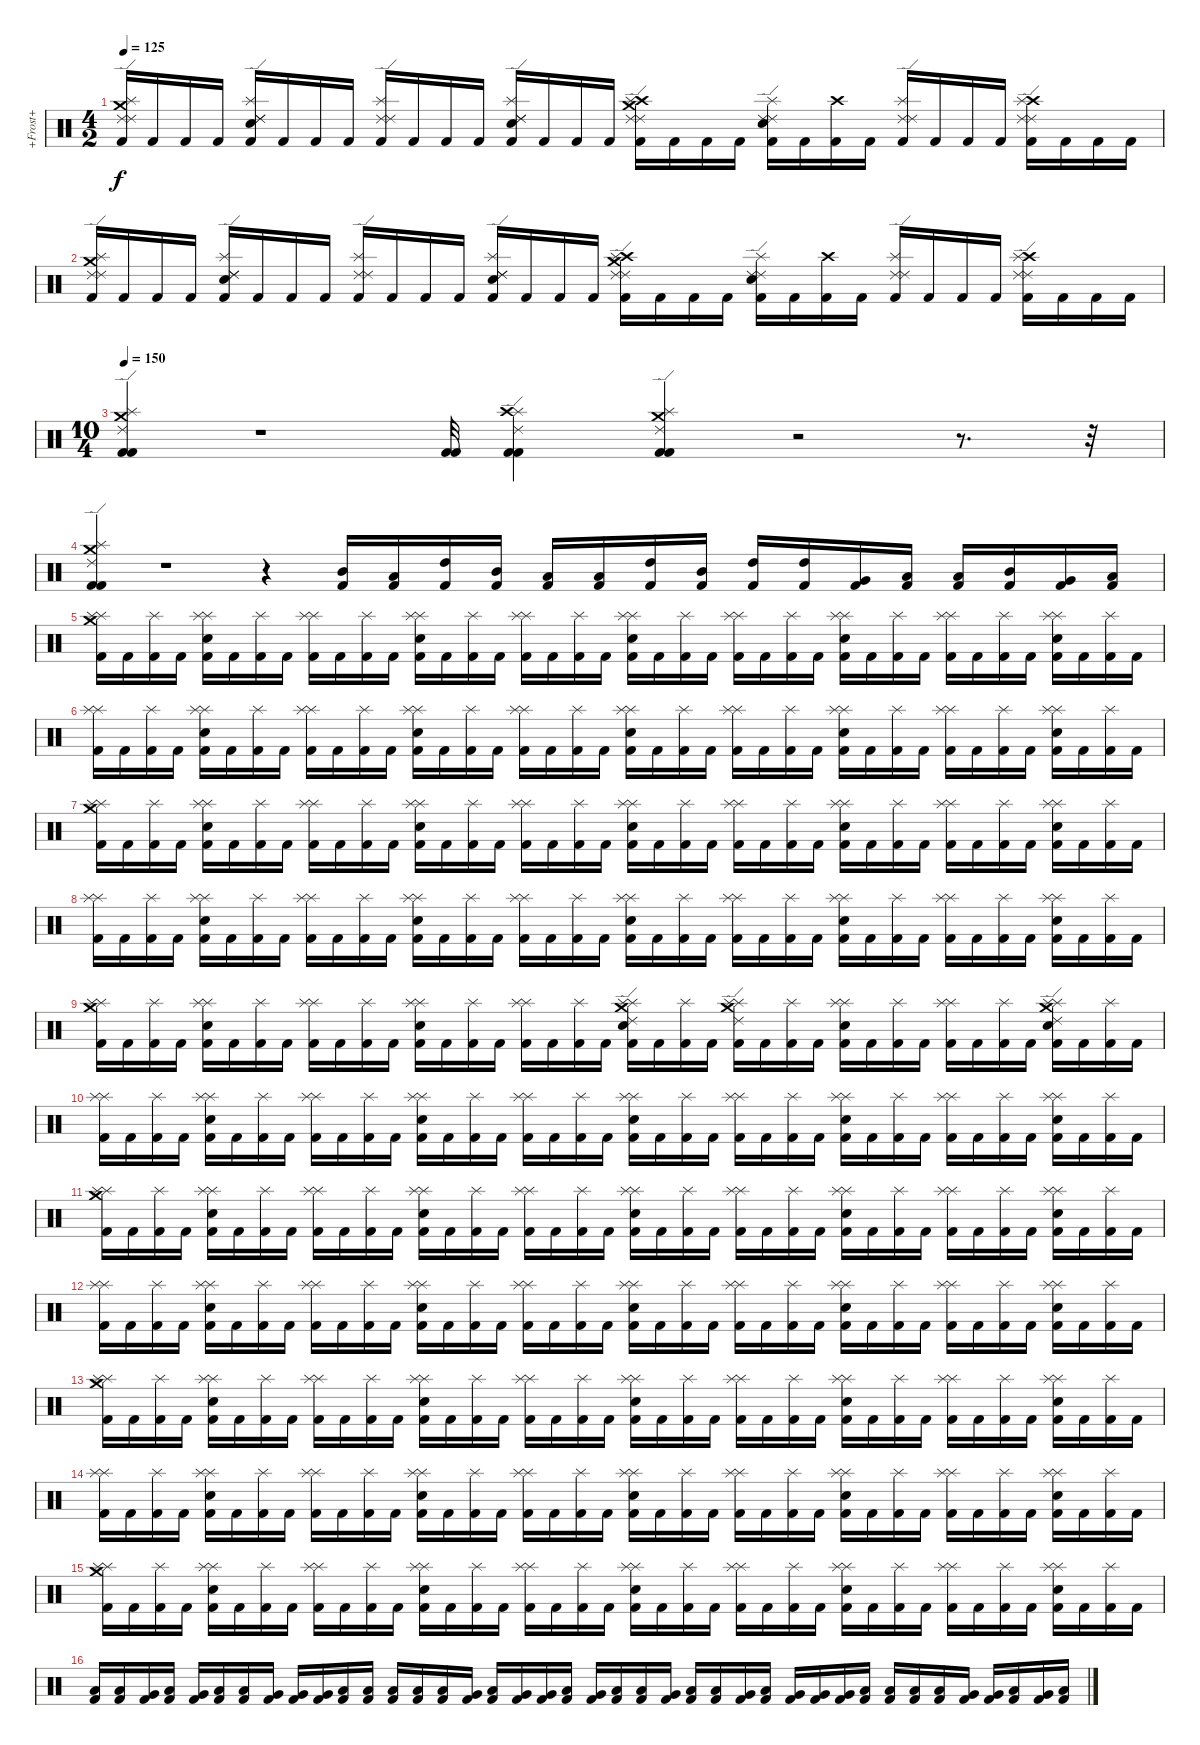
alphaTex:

\track ("+Frost+" "+Frost+") {instrument percussion}
\staff {score}
\articulation defaults
\ts (4 2)
\tempo 125
\clef neutral
\ks c
("Kick (hit) 2" "Crash medium (hit)" "Splash (hit)" "Ride (edge) 2" "Ride (edge) 2").16{dy f} "Kick (hit) 2".16 "Kick (hit) 2".16 "Kick (hit) 2".16 ("Kick (hit) 2" "Electric Snare (hit)" "Splash (hit)" "Ride (edge) 2" "Ride (edge) 2").16 "Kick (hit) 2".16 "Kick (hit) 2".16 "Kick (hit) 2".16 ("Kick (hit) 2" "Splash (hit)" "Ride (edge) 2" "Ride (edge) 2").16 "Kick (hit) 2".16 "Kick (hit) 2".16 "Kick (hit) 2".16 ("Kick (hit) 2" "Electric Snare (hit)" "Splash (hit)" "Ride (edge) 2" "Ride (edge) 2").16 "Kick (hit) 2".16 "Kick (hit) 2".16 "Kick (hit) 2".16 ("Kick (hit) 2" "Crash high (hit)" "Crash medium (hit)" "Splash (hit)" "Ride (edge) 2" "Ride (edge) 2").16 "Kick (hit) 2".16 "Kick (hit) 2".16 "Kick (hit) 2".16 ("Kick (hit) 2" "Electric Snare (hit)" "Splash (hit)" "Ride (edge) 2" "Ride (edge) 2").16 "Kick (hit) 2".16 ("Kick (hit) 2" "Crash high (hit)").16 "Kick (hit) 2".16 ("Kick (hit) 2" "Splash (hit)" "Ride (edge) 2" "Ride (edge) 2").16 "Kick (hit) 2".16 "Kick (hit) 2".16 "Kick (hit) 2".16 ("Kick (hit) 2" "Crash high (hit)" "Splash (hit)" "Ride (edge) 2" "Ride (edge) 2").16 "Kick (hit) 2".16 "Kick (hit) 2".16 "Kick (hit) 2".16 |
("Kick (hit) 2" "Crash medium (hit)" "Splash (hit)" "Ride (edge) 2" "Ride (edge) 2").16 "Kick (hit) 2".16 "Kick (hit) 2".16 "Kick (hit) 2".16 ("Kick (hit) 2" "Electric Snare (hit)" "Splash (hit)" "Ride (edge) 2" "Ride (edge) 2").16 "Kick (hit) 2".16 "Kick (hit) 2".16 "Kick (hit) 2".16 ("Kick (hit) 2" "Splash (hit)" "Ride (edge) 2" "Ride (edge) 2").16 "Kick (hit) 2".16 "Kick (hit) 2".16 "Kick (hit) 2".16 ("Kick (hit) 2" "Electric Snare (hit)" "Splash (hit)" "Ride (edge) 2" "Ride (edge) 2").16 "Kick (hit) 2".16 "Kick (hit) 2".16 "Kick (hit) 2".16 ("Kick (hit) 2" "Crash high (hit)" "Crash medium (hit)" "Splash (hit)" "Ride (edge) 2" "Ride (edge) 2").16 "Kick (hit) 2".16 "Kick (hit) 2".16 "Kick (hit) 2".16 ("Kick (hit) 2" "Electric Snare (hit)" "Splash (hit)" "Ride (edge) 2" "Ride (edge) 2").16 "Kick (hit) 2".16 ("Kick (hit) 2" "Crash high (hit)").16 "Kick (hit) 2".16 ("Kick (hit) 2" "Splash (hit)" "Ride (edge) 2" "Ride (edge) 2").16 "Kick (hit) 2".16 "Kick (hit) 2".16 "Kick (hit) 2".16 ("Kick (hit) 2" "Crash high (hit)" "Splash (hit)" "Ride (edge) 2" "Ride (edge) 2").16 "Kick (hit) 2".16 "Kick (hit) 2".16 "Kick (hit) 2".16 |
\ts (10 4)
\tempo 150
("Kick (hit) 2" "Kick (hit) 2" "Ride (edge) 2" "Crash medium (hit)" "Splash (hit)").4 r.1 ("Kick (hit) 2" "Kick (hit) 2").32 ("Kick (hit) 2" "Kick (hit) 2" "Splash (hit)" "Crash high (hit)" "Ride (edge) 2").4 ("Kick (hit) 2" "Kick (hit) 2" "Splash (hit)" "Crash medium (hit)" "Ride (edge) 2").4 r.2 r.8{d} r.32 |
("Kick (hit) 2" "Kick (hit) 2" "Ride (edge) 2" "Crash medium (hit)" "Splash (hit)").4 r.1 r.4 ("Kick (hit) 2" "Mid Tom (hit)").16 ("Kick (hit) 2" "Low Tom (hit)").16 ("Kick (hit) 2" "High Tom (hit)").16 ("Kick (hit) 2" "Mid Tom (hit)").16 ("Kick (hit) 2" "Low Tom (hit)").16 ("Kick (hit) 2" "Low Tom (hit)").16 ("Kick (hit) 2" "High Tom (hit)").16 ("Kick (hit) 2" "Mid Tom (hit)").16 ("Kick (hit) 2" "High Tom (hit)").16 ("Kick (hit) 2" "High Tom (hit)").16 ("Kick (hit) 2" "Very Low Tom (hit)").16 ("Kick (hit) 2" "Low Tom (hit)").16 ("Kick (hit) 2" "Low Floor Tom (hit)").16 ("Kick (hit) 2" "Mid Tom (hit)").16 ("Kick (hit) 2" "Very Low Tom (hit)").16 ("Kick (hit) 2" "Low Tom (hit)").16 |
("Kick (hit) 2" "Splash (hit)" "Splash (hit)" "Crash medium (hit)").16 "Kick (hit) 2".16 ("Kick (hit) 2" "Splash (hit)").16 "Kick (hit) 2".16 ("Kick (hit) 2" "Splash (hit)" "Splash (hit)" "Electric Snare (hit)").16 "Kick (hit) 2".16 ("Kick (hit) 2" "Splash (hit)").16 "Kick (hit) 2".16 ("Kick (hit) 2" "Splash (hit)" "Splash (hit)").16 "Kick (hit) 2".16 ("Kick (hit) 2" "Splash (hit)").16 "Kick (hit) 2".16 ("Kick (hit) 2" "Splash (hit)" "Splash (hit)" "Electric Snare (hit)").16 "Kick (hit) 2".16 ("Kick (hit) 2" "Splash (hit)").16 "Kick (hit) 2".16 ("Kick (hit) 2" "Splash (hit)" "Splash (hit)").16 "Kick (hit) 2".16 ("Kick (hit) 2" "Splash (hit)").16 "Kick (hit) 2".16 ("Kick (hit) 2" "Splash (hit)" "Splash (hit)" "Electric Snare (hit)").16 "Kick (hit) 2".16 ("Kick (hit) 2" "Splash (hit)").16 "Kick (hit) 2".16 ("Kick (hit) 2" "Splash (hit)" "Splash (hit)").16 "Kick (hit) 2".16 ("Kick (hit) 2" "Splash (hit)").16 "Kick (hit) 2".16 ("Kick (hit) 2" "Splash (hit)" "Splash (hit)" "Electric Snare (hit)").16 "Kick (hit) 2".16 ("Kick (hit) 2" "Splash (hit)").16 "Kick (hit) 2".16 ("Kick (hit) 2" "Splash (hit)" "Splash (hit)").16 "Kick (hit) 2".16 ("Kick (hit) 2" "Splash (hit)").16 "Kick (hit) 2".16 ("Kick (hit) 2" "Splash (hit)" "Splash (hit)" "Electric Snare (hit)").16 "Kick (hit) 2".16 ("Kick (hit) 2" "Splash (hit)").16 "Kick (hit) 2".16 |
("Kick (hit) 2" "Splash (hit)" "Splash (hit)").16 "Kick (hit) 2".16 ("Kick (hit) 2" "Splash (hit)").16 "Kick (hit) 2".16 ("Kick (hit) 2" "Splash (hit)" "Splash (hit)" "Electric Snare (hit)").16 "Kick (hit) 2".16 ("Kick (hit) 2" "Splash (hit)").16 "Kick (hit) 2".16 ("Kick (hit) 2" "Splash (hit)" "Splash (hit)").16 "Kick (hit) 2".16 ("Kick (hit) 2" "Splash (hit)").16 "Kick (hit) 2".16 ("Kick (hit) 2" "Splash (hit)" "Splash (hit)" "Electric Snare (hit)").16 "Kick (hit) 2".16 ("Kick (hit) 2" "Splash (hit)").16 "Kick (hit) 2".16 ("Kick (hit) 2" "Splash (hit)" "Splash (hit)").16 "Kick (hit) 2".16 ("Kick (hit) 2" "Splash (hit)").16 "Kick (hit) 2".16 ("Kick (hit) 2" "Splash (hit)" "Splash (hit)" "Electric Snare (hit)").16 "Kick (hit) 2".16 ("Kick (hit) 2" "Splash (hit)").16 "Kick (hit) 2".16 ("Kick (hit) 2" "Splash (hit)" "Splash (hit)").16 "Kick (hit) 2".16 ("Kick (hit) 2" "Splash (hit)").16 "Kick (hit) 2".16 ("Kick (hit) 2" "Splash (hit)" "Splash (hit)" "Electric Snare (hit)").16 "Kick (hit) 2".16 ("Kick (hit) 2" "Splash (hit)").16 "Kick (hit) 2".16 ("Kick (hit) 2" "Splash (hit)" "Splash (hit)").16 "Kick (hit) 2".16 ("Kick (hit) 2" "Splash (hit)").16 "Kick (hit) 2".16 ("Kick (hit) 2" "Splash (hit)" "Splash (hit)" "Electric Snare (hit)").16 "Kick (hit) 2".16 ("Kick (hit) 2" "Splash (hit)").16 "Kick (hit) 2".16 |
("Kick (hit) 2" "Splash (hit)" "Splash (hit)" "Crash medium (hit)").16 "Kick (hit) 2".16 ("Kick (hit) 2" "Splash (hit)").16 "Kick (hit) 2".16 ("Kick (hit) 2" "Splash (hit)" "Splash (hit)" "Electric Snare (hit)").16 "Kick (hit) 2".16 ("Kick (hit) 2" "Splash (hit)").16 "Kick (hit) 2".16 ("Kick (hit) 2" "Splash (hit)" "Splash (hit)").16 "Kick (hit) 2".16 ("Kick (hit) 2" "Splash (hit)").16 "Kick (hit) 2".16 ("Kick (hit) 2" "Splash (hit)" "Splash (hit)" "Electric Snare (hit)").16 "Kick (hit) 2".16 ("Kick (hit) 2" "Splash (hit)").16 "Kick (hit) 2".16 ("Kick (hit) 2" "Splash (hit)" "Splash (hit)").16 "Kick (hit) 2".16 ("Kick (hit) 2" "Splash (hit)").16 "Kick (hit) 2".16 ("Kick (hit) 2" "Splash (hit)" "Splash (hit)" "Electric Snare (hit)").16 "Kick (hit) 2".16 ("Kick (hit) 2" "Splash (hit)").16 "Kick (hit) 2".16 ("Kick (hit) 2" "Splash (hit)" "Splash (hit)").16 "Kick (hit) 2".16 ("Kick (hit) 2" "Splash (hit)").16 "Kick (hit) 2".16 ("Kick (hit) 2" "Splash (hit)" "Splash (hit)" "Electric Snare (hit)").16 "Kick (hit) 2".16 ("Kick (hit) 2" "Splash (hit)").16 "Kick (hit) 2".16 ("Kick (hit) 2" "Splash (hit)" "Splash (hit)").16 "Kick (hit) 2".16 ("Kick (hit) 2" "Splash (hit)").16 "Kick (hit) 2".16 ("Kick (hit) 2" "Splash (hit)" "Splash (hit)" "Electric Snare (hit)").16 "Kick (hit) 2".16 ("Kick (hit) 2" "Splash (hit)").16 "Kick (hit) 2".16 |
("Kick (hit) 2" "Splash (hit)" "Splash (hit)").16 "Kick (hit) 2".16 ("Kick (hit) 2" "Splash (hit)").16 "Kick (hit) 2".16 ("Kick (hit) 2" "Splash (hit)" "Splash (hit)" "Electric Snare (hit)").16 "Kick (hit) 2".16 ("Kick (hit) 2" "Splash (hit)").16 "Kick (hit) 2".16 ("Kick (hit) 2" "Splash (hit)" "Splash (hit)").16 "Kick (hit) 2".16 ("Kick (hit) 2" "Splash (hit)").16 "Kick (hit) 2".16 ("Kick (hit) 2" "Splash (hit)" "Splash (hit)" "Electric Snare (hit)").16 "Kick (hit) 2".16 ("Kick (hit) 2" "Splash (hit)").16 "Kick (hit) 2".16 ("Kick (hit) 2" "Splash (hit)" "Splash (hit)").16 "Kick (hit) 2".16 ("Kick (hit) 2" "Splash (hit)").16 "Kick (hit) 2".16 ("Kick (hit) 2" "Splash (hit)" "Splash (hit)" "Electric Snare (hit)").16 "Kick (hit) 2".16 ("Kick (hit) 2" "Splash (hit)").16 "Kick (hit) 2".16 ("Kick (hit) 2" "Splash (hit)" "Splash (hit)").16 "Kick (hit) 2".16 ("Kick (hit) 2" "Splash (hit)").16 "Kick (hit) 2".16 ("Kick (hit) 2" "Splash (hit)" "Splash (hit)" "Electric Snare (hit)").16 "Kick (hit) 2".16 ("Kick (hit) 2" "Splash (hit)").16 "Kick (hit) 2".16 ("Kick (hit) 2" "Splash (hit)" "Splash (hit)").16 "Kick (hit) 2".16 ("Kick (hit) 2" "Splash (hit)").16 "Kick (hit) 2".16 ("Kick (hit) 2" "Splash (hit)" "Splash (hit)" "Electric Snare (hit)").16 "Kick (hit) 2".16 ("Kick (hit) 2" "Splash (hit)").16 "Kick (hit) 2".16 |
("Kick (hit) 2" "Splash (hit)" "Splash (hit)" "Crash medium (hit)").16 "Kick (hit) 2".16 ("Kick (hit) 2" "Splash (hit)").16 "Kick (hit) 2".16 ("Kick (hit) 2" "Splash (hit)" "Splash (hit)" "Electric Snare (hit)").16 "Kick (hit) 2".16 ("Kick (hit) 2" "Splash (hit)").16 "Kick (hit) 2".16 ("Kick (hit) 2" "Splash (hit)" "Splash (hit)").16 "Kick (hit) 2".16 ("Kick (hit) 2" "Splash (hit)").16 "Kick (hit) 2".16 ("Kick (hit) 2" "Splash (hit)" "Splash (hit)" "Electric Snare (hit)").16 "Kick (hit) 2".16 ("Kick (hit) 2" "Splash (hit)").16 "Kick (hit) 2".16 ("Kick (hit) 2" "Splash (hit)" "Splash (hit)").16 "Kick (hit) 2".16 ("Kick (hit) 2" "Splash (hit)").16 "Kick (hit) 2".16 ("Kick (hit) 2" "Splash (hit)" "Splash (hit)" "Crash medium (hit)" "Electric Snare (hit)" "Ride (edge) 2").16 "Kick (hit) 2".16 ("Kick (hit) 2" "Splash (hit)").16 "Kick (hit) 2".16 ("Kick (hit) 2" "Splash (hit)" "Splash (hit)" "Crash medium (hit)" "Ride (edge) 2").16 "Kick (hit) 2".16 ("Kick (hit) 2" "Splash (hit)").16 "Kick (hit) 2".16 ("Kick (hit) 2" "Splash (hit)" "Splash (hit)" "Electric Snare (hit)").16 "Kick (hit) 2".16 ("Kick (hit) 2" "Splash (hit)").16 "Kick (hit) 2".16 ("Kick (hit) 2" "Splash (hit)" "Splash (hit)").16 "Kick (hit) 2".16 ("Kick (hit) 2" "Splash (hit)").16 "Kick (hit) 2".16 ("Kick (hit) 2" "Splash (hit)" "Splash (hit)" "Crash medium (hit)" "Electric Snare (hit)" "Ride (edge) 2").16 "Kick (hit) 2".16 ("Kick (hit) 2" "Splash (hit)").16 "Kick (hit) 2".16 |
("Kick (hit) 2" "Splash (hit)" "Splash (hit)").16 "Kick (hit) 2".16 ("Kick (hit) 2" "Splash (hit)").16 "Kick (hit) 2".16 ("Kick (hit) 2" "Splash (hit)" "Splash (hit)" "Electric Snare (hit)").16 "Kick (hit) 2".16 ("Kick (hit) 2" "Splash (hit)").16 "Kick (hit) 2".16 ("Kick (hit) 2" "Splash (hit)" "Splash (hit)").16 "Kick (hit) 2".16 ("Kick (hit) 2" "Splash (hit)").16 "Kick (hit) 2".16 ("Kick (hit) 2" "Splash (hit)" "Splash (hit)" "Electric Snare (hit)").16 "Kick (hit) 2".16 ("Kick (hit) 2" "Splash (hit)").16 "Kick (hit) 2".16 ("Kick (hit) 2" "Splash (hit)" "Splash (hit)").16 "Kick (hit) 2".16 ("Kick (hit) 2" "Splash (hit)").16 "Kick (hit) 2".16 ("Kick (hit) 2" "Splash (hit)" "Splash (hit)" "Electric Snare (hit)").16 "Kick (hit) 2".16 ("Kick (hit) 2" "Splash (hit)").16 "Kick (hit) 2".16 ("Kick (hit) 2" "Splash (hit)" "Splash (hit)").16 "Kick (hit) 2".16 ("Kick (hit) 2" "Splash (hit)").16 "Kick (hit) 2".16 ("Kick (hit) 2" "Splash (hit)" "Splash (hit)" "Electric Snare (hit)").16 "Kick (hit) 2".16 ("Kick (hit) 2" "Splash (hit)").16 "Kick (hit) 2".16 ("Kick (hit) 2" "Splash (hit)" "Splash (hit)").16 "Kick (hit) 2".16 ("Kick (hit) 2" "Splash (hit)").16 "Kick (hit) 2".16 ("Kick (hit) 2" "Splash (hit)" "Splash (hit)" "Electric Snare (hit)").16 "Kick (hit) 2".16 ("Kick (hit) 2" "Splash (hit)").16 "Kick (hit) 2".16 |
("Kick (hit) 2" "Splash (hit)" "Splash (hit)" "Crash medium (hit)").16 "Kick (hit) 2".16 ("Kick (hit) 2" "Splash (hit)").16 "Kick (hit) 2".16 ("Kick (hit) 2" "Splash (hit)" "Splash (hit)" "Electric Snare (hit)").16 "Kick (hit) 2".16 ("Kick (hit) 2" "Splash (hit)").16 "Kick (hit) 2".16 ("Kick (hit) 2" "Splash (hit)" "Splash (hit)").16 "Kick (hit) 2".16 ("Kick (hit) 2" "Splash (hit)").16 "Kick (hit) 2".16 ("Kick (hit) 2" "Splash (hit)" "Splash (hit)" "Electric Snare (hit)").16 "Kick (hit) 2".16 ("Kick (hit) 2" "Splash (hit)").16 "Kick (hit) 2".16 ("Kick (hit) 2" "Splash (hit)" "Splash (hit)").16 "Kick (hit) 2".16 ("Kick (hit) 2" "Splash (hit)").16 "Kick (hit) 2".16 ("Kick (hit) 2" "Splash (hit)" "Splash (hit)" "Electric Snare (hit)").16 "Kick (hit) 2".16 ("Kick (hit) 2" "Splash (hit)").16 "Kick (hit) 2".16 ("Kick (hit) 2" "Splash (hit)" "Splash (hit)").16 "Kick (hit) 2".16 ("Kick (hit) 2" "Splash (hit)").16 "Kick (hit) 2".16 ("Kick (hit) 2" "Splash (hit)" "Splash (hit)" "Electric Snare (hit)").16 "Kick (hit) 2".16 ("Kick (hit) 2" "Splash (hit)").16 "Kick (hit) 2".16 ("Kick (hit) 2" "Splash (hit)" "Splash (hit)").16 "Kick (hit) 2".16 ("Kick (hit) 2" "Splash (hit)").16 "Kick (hit) 2".16 ("Kick (hit) 2" "Splash (hit)" "Splash (hit)" "Electric Snare (hit)").16 "Kick (hit) 2".16 ("Kick (hit) 2" "Splash (hit)").16 "Kick (hit) 2".16 |
("Kick (hit) 2" "Splash (hit)" "Splash (hit)").16 "Kick (hit) 2".16 ("Kick (hit) 2" "Splash (hit)").16 "Kick (hit) 2".16 ("Kick (hit) 2" "Splash (hit)" "Splash (hit)" "Electric Snare (hit)").16 "Kick (hit) 2".16 ("Kick (hit) 2" "Splash (hit)").16 "Kick (hit) 2".16 ("Kick (hit) 2" "Splash (hit)" "Splash (hit)").16 "Kick (hit) 2".16 ("Kick (hit) 2" "Splash (hit)").16 "Kick (hit) 2".16 ("Kick (hit) 2" "Splash (hit)" "Splash (hit)" "Electric Snare (hit)").16 "Kick (hit) 2".16 ("Kick (hit) 2" "Splash (hit)").16 "Kick (hit) 2".16 ("Kick (hit) 2" "Splash (hit)" "Splash (hit)").16 "Kick (hit) 2".16 ("Kick (hit) 2" "Splash (hit)").16 "Kick (hit) 2".16 ("Kick (hit) 2" "Splash (hit)" "Splash (hit)" "Electric Snare (hit)").16 "Kick (hit) 2".16 ("Kick (hit) 2" "Splash (hit)").16 "Kick (hit) 2".16 ("Kick (hit) 2" "Splash (hit)" "Splash (hit)").16 "Kick (hit) 2".16 ("Kick (hit) 2" "Splash (hit)").16 "Kick (hit) 2".16 ("Kick (hit) 2" "Splash (hit)" "Splash (hit)" "Electric Snare (hit)").16 "Kick (hit) 2".16 ("Kick (hit) 2" "Splash (hit)").16 "Kick (hit) 2".16 ("Kick (hit) 2" "Splash (hit)" "Splash (hit)").16 "Kick (hit) 2".16 ("Kick (hit) 2" "Splash (hit)").16 "Kick (hit) 2".16 ("Kick (hit) 2" "Splash (hit)" "Splash (hit)" "Electric Snare (hit)").16 "Kick (hit) 2".16 ("Kick (hit) 2" "Splash (hit)").16 "Kick (hit) 2".16 |
("Kick (hit) 2" "Splash (hit)" "Splash (hit)" "Crash medium (hit)").16 "Kick (hit) 2".16 ("Kick (hit) 2" "Splash (hit)").16 "Kick (hit) 2".16 ("Kick (hit) 2" "Splash (hit)" "Splash (hit)" "Electric Snare (hit)").16 "Kick (hit) 2".16 ("Kick (hit) 2" "Splash (hit)").16 "Kick (hit) 2".16 ("Kick (hit) 2" "Splash (hit)" "Splash (hit)").16 "Kick (hit) 2".16 ("Kick (hit) 2" "Splash (hit)").16 "Kick (hit) 2".16 ("Kick (hit) 2" "Splash (hit)" "Splash (hit)" "Electric Snare (hit)").16 "Kick (hit) 2".16 ("Kick (hit) 2" "Splash (hit)").16 "Kick (hit) 2".16 ("Kick (hit) 2" "Splash (hit)" "Splash (hit)").16 "Kick (hit) 2".16 ("Kick (hit) 2" "Splash (hit)").16 "Kick (hit) 2".16 ("Kick (hit) 2" "Splash (hit)" "Splash (hit)" "Electric Snare (hit)").16 "Kick (hit) 2".16 ("Kick (hit) 2" "Splash (hit)").16 "Kick (hit) 2".16 ("Kick (hit) 2" "Splash (hit)" "Splash (hit)").16 "Kick (hit) 2".16 ("Kick (hit) 2" "Splash (hit)").16 "Kick (hit) 2".16 ("Kick (hit) 2" "Splash (hit)" "Splash (hit)" "Electric Snare (hit)").16 "Kick (hit) 2".16 ("Kick (hit) 2" "Splash (hit)").16 "Kick (hit) 2".16 ("Kick (hit) 2" "Splash (hit)" "Splash (hit)").16 "Kick (hit) 2".16 ("Kick (hit) 2" "Splash (hit)").16 "Kick (hit) 2".16 ("Kick (hit) 2" "Splash (hit)" "Splash (hit)" "Electric Snare (hit)").16 "Kick (hit) 2".16 ("Kick (hit) 2" "Splash (hit)").16 "Kick (hit) 2".16 |
("Kick (hit) 2" "Splash (hit)" "Splash (hit)").16 "Kick (hit) 2".16 ("Kick (hit) 2" "Splash (hit)").16 "Kick (hit) 2".16 ("Kick (hit) 2" "Splash (hit)" "Splash (hit)" "Electric Snare (hit)").16 "Kick (hit) 2".16 ("Kick (hit) 2" "Splash (hit)").16 "Kick (hit) 2".16 ("Kick (hit) 2" "Splash (hit)" "Splash (hit)").16 "Kick (hit) 2".16 ("Kick (hit) 2" "Splash (hit)").16 "Kick (hit) 2".16 ("Kick (hit) 2" "Splash (hit)" "Splash (hit)" "Electric Snare (hit)").16 "Kick (hit) 2".16 ("Kick (hit) 2" "Splash (hit)").16 "Kick (hit) 2".16 ("Kick (hit) 2" "Splash (hit)" "Splash (hit)").16 "Kick (hit) 2".16 ("Kick (hit) 2" "Splash (hit)").16 "Kick (hit) 2".16 ("Kick (hit) 2" "Splash (hit)" "Splash (hit)" "Electric Snare (hit)").16 "Kick (hit) 2".16 ("Kick (hit) 2" "Splash (hit)").16 "Kick (hit) 2".16 ("Kick (hit) 2" "Splash (hit)" "Splash (hit)").16 "Kick (hit) 2".16 ("Kick (hit) 2" "Splash (hit)").16 "Kick (hit) 2".16 ("Kick (hit) 2" "Splash (hit)" "Splash (hit)" "Electric Snare (hit)").16 "Kick (hit) 2".16 ("Kick (hit) 2" "Splash (hit)").16 "Kick (hit) 2".16 ("Kick (hit) 2" "Splash (hit)" "Splash (hit)").16 "Kick (hit) 2".16 ("Kick (hit) 2" "Splash (hit)").16 "Kick (hit) 2".16 ("Kick (hit) 2" "Splash (hit)" "Splash (hit)" "Electric Snare (hit)").16 "Kick (hit) 2".16 ("Kick (hit) 2" "Splash (hit)").16 "Kick (hit) 2".16 |
("Kick (hit) 2" "Splash (hit)" "Splash (hit)" "Crash medium (hit)").16 "Kick (hit) 2".16 ("Kick (hit) 2" "Splash (hit)").16 "Kick (hit) 2".16 ("Kick (hit) 2" "Splash (hit)" "Splash (hit)" "Electric Snare (hit)").16 "Kick (hit) 2".16 ("Kick (hit) 2" "Splash (hit)").16 "Kick (hit) 2".16 ("Kick (hit) 2" "Splash (hit)" "Splash (hit)").16 "Kick (hit) 2".16 ("Kick (hit) 2" "Splash (hit)").16 "Kick (hit) 2".16 ("Kick (hit) 2" "Splash (hit)" "Splash (hit)" "Electric Snare (hit)").16 "Kick (hit) 2".16 ("Kick (hit) 2" "Splash (hit)").16 "Kick (hit) 2".16 ("Kick (hit) 2" "Splash (hit)" "Splash (hit)").16 "Kick (hit) 2".16 ("Kick (hit) 2" "Splash (hit)").16 "Kick (hit) 2".16 ("Kick (hit) 2" "Splash (hit)" "Splash (hit)" "Electric Snare (hit)").16 "Kick (hit) 2".16 ("Kick (hit) 2" "Splash (hit)").16 "Kick (hit) 2".16 ("Kick (hit) 2" "Splash (hit)" "Splash (hit)").16 "Kick (hit) 2".16 ("Kick (hit) 2" "Splash (hit)").16 "Kick (hit) 2".16 ("Kick (hit) 2" "Splash (hit)" "Splash (hit)" "Electric Snare (hit)").16 "Kick (hit) 2".16 ("Kick (hit) 2" "Splash (hit)").16 "Kick (hit) 2".16 ("Kick (hit) 2" "Splash (hit)" "Splash (hit)").16 "Kick (hit) 2".16 ("Kick (hit) 2" "Splash (hit)").16 "Kick (hit) 2".16 ("Kick (hit) 2" "Splash (hit)" "Splash (hit)" "Electric Snare (hit)").16 "Kick (hit) 2".16 ("Kick (hit) 2" "Splash (hit)").16 "Kick (hit) 2".16 |
("Kick (hit) 2" "Low Tom (hit)").16 ("Kick (hit) 2" "Low Tom (hit)").16 ("Kick (hit) 2" "Very Low Tom (hit)").16 ("Kick (hit) 2" "Low Tom (hit)").16 ("Kick (hit) 2" "Very Low Tom (hit)").16 ("Kick (hit) 2" "Low Tom (hit)").16 ("Kick (hit) 2" "Low Tom (hit)").16 ("Kick (hit) 2" "Very Low Tom (hit)").16 ("Kick (hit) 2" "Very Low Tom (hit)").16 ("Kick (hit) 2" "Very Low Tom (hit)").16 ("Kick (hit) 2" "Low Tom (hit)").16 ("Kick (hit) 2" "Low Tom (hit)").16 ("Kick (hit) 2" "Low Tom (hit)").16 ("Kick (hit) 2" "Low Tom (hit)").16 ("Kick (hit) 2" "Low Tom (hit)").16 ("Kick (hit) 2" "Very Low Tom (hit)").16 ("Kick (hit) 2" "Low Tom (hit)").16 ("Kick (hit) 2" "Very Low Tom (hit)").16 ("Kick (hit) 2" "Very Low Tom (hit)").16 ("Kick (hit) 2" "Low Tom (hit)").16 ("Kick (hit) 2" "Very Low Tom (hit)").16 ("Kick (hit) 2" "Low Floor Tom (hit)").16 ("Kick (hit) 2" "Low Floor Tom (hit)").16 ("Kick (hit) 2" "Very Low Tom (hit)").16 ("Kick (hit) 2" "Low Floor Tom (hit)").16 ("Kick (hit) 2" "Low Floor Tom (hit)").16 ("Kick (hit) 2" "Very Low Tom (hit)").16 ("Kick (hit) 2" "Low Floor Tom (hit)").16 ("Kick (hit) 2" "Very Low Tom (hit)").16 ("Kick (hit) 2" "Very Low Tom (hit)").16 ("Kick (hit) 2" "Very Low Tom (hit)").16 ("Kick (hit) 2" "Low Floor Tom (hit)").16 ("Kick (hit) 2" "Low Floor Tom (hit)").16 ("Kick (hit) 2" "Low Floor Tom (hit)").16 ("Kick (hit) 2" "Low Floor Tom (hit)").16 ("Kick (hit) 2" "Very Low Tom (hit)").16 ("Kick (hit) 2" "Very Low Tom (hit)").16 ("Kick (hit) 2" "Low Floor Tom (hit)").16 ("Kick (hit) 2" "Very Low Tom (hit)").16 ("Kick (hit) 2" "Low Floor Tom (hit)").16
